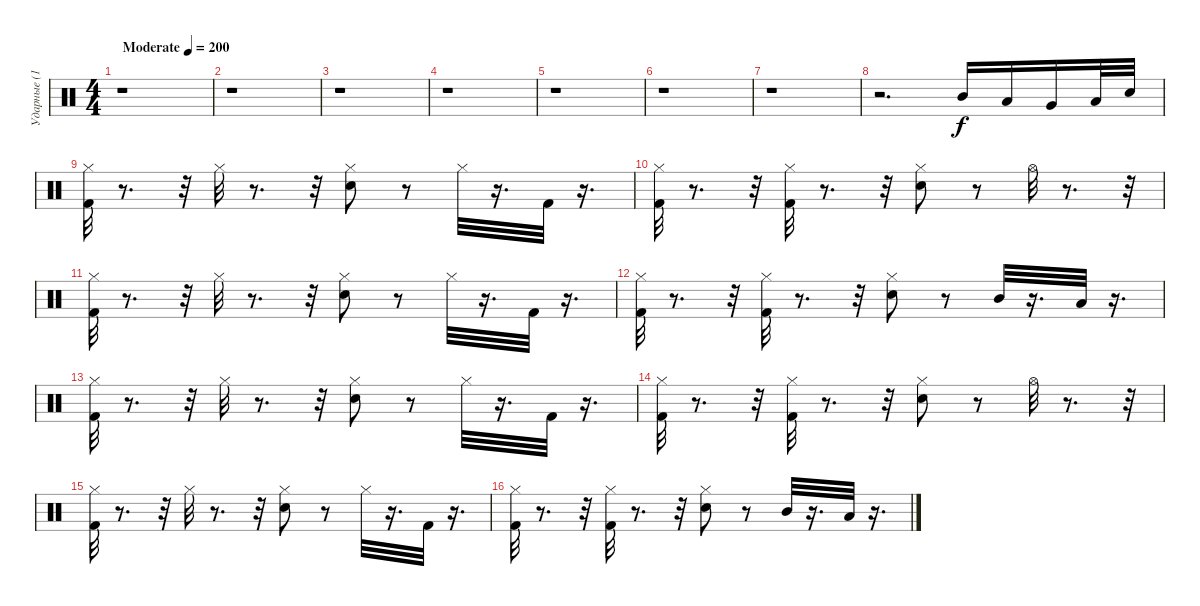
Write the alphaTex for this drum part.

\track ("Ударные (1)" "Ударные (1") {instrument percussion}
\staff {score}
\articulation defaults
\ts (4 4)
\tempo (200 "Moderate")
\clef neutral
\ks c
r.1{dy f} |
r.1 |
r.1 |
r.1 |
r.1 |
r.1 |
r.1 |
r.2{d} "Mid Tom (hit)".16 "Low Tom (hit)".16 "Very Low Tom (hit)".16 "Low Floor Tom (hit)".32 "Electric Snare (hit)".32 |
("Hi-Hat (closed)" "Kick (hit) 2").32 r.8{d} r.32 "Hi-Hat (closed)".32 r.8{d} r.32 ("Hi-Hat (closed)" "Hand Clap (hit)").8 r.8 "Hi-Hat (closed)".32 r.16{d} "Kick (hit) 2".32 r.16{d} |
("Hi-Hat (closed)" "Kick (hit) 2").32 r.8{d} r.32 ("Hi-Hat (closed)" "Kick (hit) 2").32 r.8{d} r.32 ("Hi-Hat (closed)" "Hand Clap (hit)").8 r.8 "Hi-Hat (open)".32 r.8{d} r.32 |
("Hi-Hat (closed)" "Kick (hit) 2").32 r.8{d} r.32 "Hi-Hat (closed)".32 r.8{d} r.32 ("Hi-Hat (closed)" "Hand Clap (hit)").8 r.8 "Hi-Hat (closed)".32 r.16{d} "Kick (hit) 2".32 r.16{d} |
("Hi-Hat (closed)" "Kick (hit) 2").32 r.8{d} r.32 ("Hi-Hat (closed)" "Kick (hit) 2").32 r.8{d} r.32 ("Hi-Hat (closed)" "Hand Clap (hit)").8 r.8 "Mid Tom (hit)".32 r.16{d} "Low Tom (hit)".32 r.16{d} |
("Hi-Hat (closed)" "Kick (hit) 2").32 r.8{d} r.32 "Hi-Hat (closed)".32 r.8{d} r.32 ("Hi-Hat (closed)" "Hand Clap (hit)").8 r.8 "Hi-Hat (closed)".32 r.16{d} "Kick (hit) 2".32 r.16{d} |
("Hi-Hat (closed)" "Kick (hit) 2").32 r.8{d} r.32 ("Hi-Hat (closed)" "Kick (hit) 2").32 r.8{d} r.32 ("Hi-Hat (closed)" "Hand Clap (hit)").8 r.8 "Hi-Hat (open)".32 r.8{d} r.32 |
("Hi-Hat (closed)" "Kick (hit) 2").32 r.8{d} r.32 "Hi-Hat (closed)".32 r.8{d} r.32 ("Hi-Hat (closed)" "Hand Clap (hit)").8 r.8 "Hi-Hat (closed)".32 r.16{d} "Kick (hit) 2".32 r.16{d} |
("Hi-Hat (closed)" "Kick (hit) 2").32 r.8{d} r.32 ("Hi-Hat (closed)" "Kick (hit) 2").32 r.8{d} r.32 ("Hi-Hat (closed)" "Hand Clap (hit)").8 r.8 "Mid Tom (hit)".32 r.16{d} "Low Tom (hit)".32 r.16{d}
